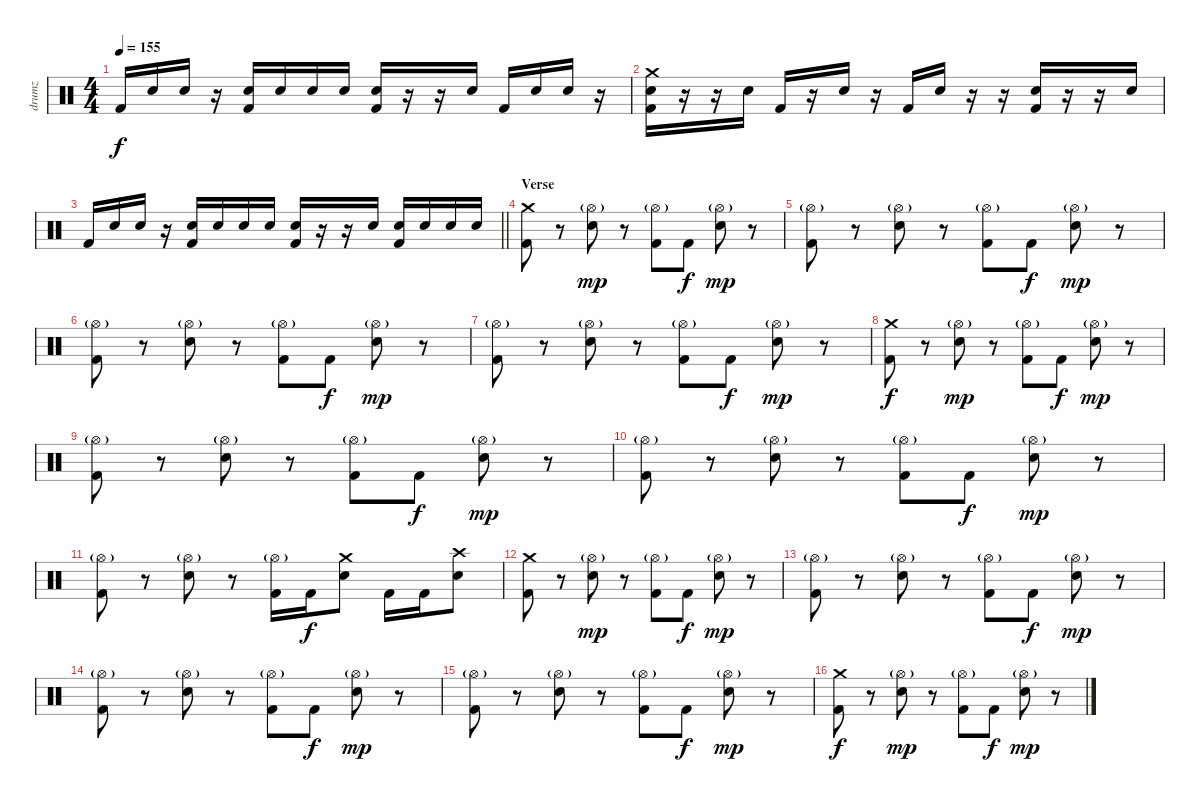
\track ("drumz" "drumz") {instrument percussion}
\staff {score}
\articulation defaults
\ts (4 4)
\tempo 155
\clef neutral
\ks c "Kick (hit) 2".16{dy f} "Electric Snare (hit)".16 "Electric Snare (hit)".16
r.16 ("Electric Snare (hit)" "Kick (hit) 2").16 "Electric Snare (hit)".16 "Electric Snare (hit)".16 "Electric Snare (hit)".16 ("Electric Snare (hit)" "Kick (hit) 2").16 r.16 r.16 "Electric Snare (hit)".16 "Kick (hit) 2".16 "Electric Snare (hit)".16 "Electric Snare (hit)".16 r.16 |
("Crash medium (hit)" "Electric Snare (hit)" "Kick (hit) 2").16 r.16 r.16 "Electric Snare (hit)".16 "Kick (hit) 2".16 r.16 "Electric Snare (hit)".16 r.16 "Kick (hit) 2".16 "Electric Snare (hit)".16 r.16 r.16 ("Electric Snare (hit)" "Kick (hit) 2").16 r.16 r.16 "Electric Snare (hit)".16 |
\barLineRight lightlight "Kick (hit) 2".16 "Electric Snare (hit)".16 "Electric Snare (hit)".16
r.16 ("Electric Snare (hit)" "Kick (hit) 2").16 "Electric Snare (hit)".16 "Electric Snare (hit)".16 "Electric Snare (hit)".16 ("Electric Snare (hit)" "Kick (hit) 2").16 r.16 r.16 "Electric Snare (hit)".16 ("Electric Snare (hit)" "Kick (hit) 2").16 "Electric Snare (hit)".16 "Electric Snare (hit)".16 "Electric Snare (hit)".16 |
\section ("" "Verse")
("Crash medium (hit)" "Kick (hit) 2").8 r.8 ("Hi-Hat (open)"{g} "Electric Snare (hit)").8{dy mp} r.8 ("Hi-Hat (open)"{g} "Kick (hit) 2").8 "Kick (hit) 2".8{dy f} ("Hi-Hat (open)"{g} "Electric Snare (hit)").8{dy mp} r.8 |
("Hi-Hat (open)"{g} "Kick (hit) 2").8 r.8 ("Hi-Hat (open)"{g} "Electric Snare (hit)").8 r.8 ("Hi-Hat (open)"{g} "Kick (hit) 2").8 "Kick (hit) 2".8{dy f} ("Hi-Hat (open)"{g} "Electric Snare (hit)").8{dy mp} r.8 |
("Hi-Hat (open)"{g} "Kick (hit) 2").8 r.8 ("Hi-Hat (open)"{g} "Electric Snare (hit)").8 r.8 ("Hi-Hat (open)"{g} "Kick (hit) 2").8 "Kick (hit) 2".8{dy f} ("Hi-Hat (open)"{g} "Electric Snare (hit)").8{dy mp} r.8 |
("Hi-Hat (open)"{g} "Kick (hit) 2").8 r.8 ("Hi-Hat (open)"{g} "Electric Snare (hit)").8 r.8 ("Hi-Hat (open)"{g} "Kick (hit) 2").8 "Kick (hit) 2".8{dy f} ("Hi-Hat (open)"{g} "Electric Snare (hit)").8{dy mp} r.8 |
("Crash medium (hit)" "Kick (hit) 2").8{dy f} r.8 ("Hi-Hat (open)"{g} "Electric Snare (hit)").8{dy mp} r.8 ("Hi-Hat (open)"{g} "Kick (hit) 2").8 "Kick (hit) 2".8{dy f} ("Hi-Hat (open)"{g} "Electric Snare (hit)").8{dy mp} r.8 |
("Hi-Hat (open)"{g} "Kick (hit) 2").8 r.8 ("Hi-Hat (open)"{g} "Electric Snare (hit)").8 r.8 ("Hi-Hat (open)"{g} "Kick (hit) 2").8 "Kick (hit) 2".8{dy f} ("Hi-Hat (open)"{g} "Electric Snare (hit)").8{dy mp} r.8 |
("Hi-Hat (open)"{g} "Kick (hit) 2").8 r.8 ("Hi-Hat (open)"{g} "Electric Snare (hit)").8 r.8 ("Hi-Hat (open)"{g} "Kick (hit) 2").8 "Kick (hit) 2".8{dy f} ("Hi-Hat (open)"{g} "Electric Snare (hit)").8{dy mp} r.8 |
("Hi-Hat (open)"{g} "Kick (hit) 2").8 r.8 ("Hi-Hat (open)"{g} "Electric Snare (hit)").8 r.8 ("Hi-Hat (open)"{g} "Kick (hit) 2").16 "Kick (hit) 2".16{dy f} ("Crash medium (hit)" "Electric Snare (hit)").8 "Kick (hit) 2".16 "Kick (hit) 2".16 ("Crash high (hit)" "Electric Snare (hit)").8 |
("Crash medium (hit)" "Kick (hit) 2").8 r.8 ("Hi-Hat (open)"{g} "Electric Snare (hit)").8{dy mp} r.8 ("Hi-Hat (open)"{g} "Kick (hit) 2").8 "Kick (hit) 2".8{dy f} ("Hi-Hat (open)"{g} "Electric Snare (hit)").8{dy mp} r.8 |
("Hi-Hat (open)"{g} "Kick (hit) 2").8 r.8 ("Hi-Hat (open)"{g} "Electric Snare (hit)").8 r.8 ("Hi-Hat (open)"{g} "Kick (hit) 2").8 "Kick (hit) 2".8{dy f} ("Hi-Hat (open)"{g} "Electric Snare (hit)").8{dy mp} r.8 |
("Hi-Hat (open)"{g} "Kick (hit) 2").8 r.8 ("Hi-Hat (open)"{g} "Electric Snare (hit)").8 r.8 ("Hi-Hat (open)"{g} "Kick (hit) 2").8 "Kick (hit) 2".8{dy f} ("Hi-Hat (open)"{g} "Electric Snare (hit)").8{dy mp} r.8 |
("Hi-Hat (open)"{g} "Kick (hit) 2").8 r.8 ("Hi-Hat (open)"{g} "Electric Snare (hit)").8 r.8 ("Hi-Hat (open)"{g} "Kick (hit) 2").8 "Kick (hit) 2".8{dy f} ("Hi-Hat (open)"{g} "Electric Snare (hit)").8{dy mp} r.8 |
("Crash medium (hit)" "Kick (hit) 2").8{dy f} r.8 ("Hi-Hat (open)"{g} "Electric Snare (hit)").8{dy mp} r.8 ("Hi-Hat (open)"{g} "Kick (hit) 2").8 "Kick (hit) 2".8{dy f} ("Hi-Hat (open)"{g} "Electric Snare (hit)").8{dy mp} r.8
